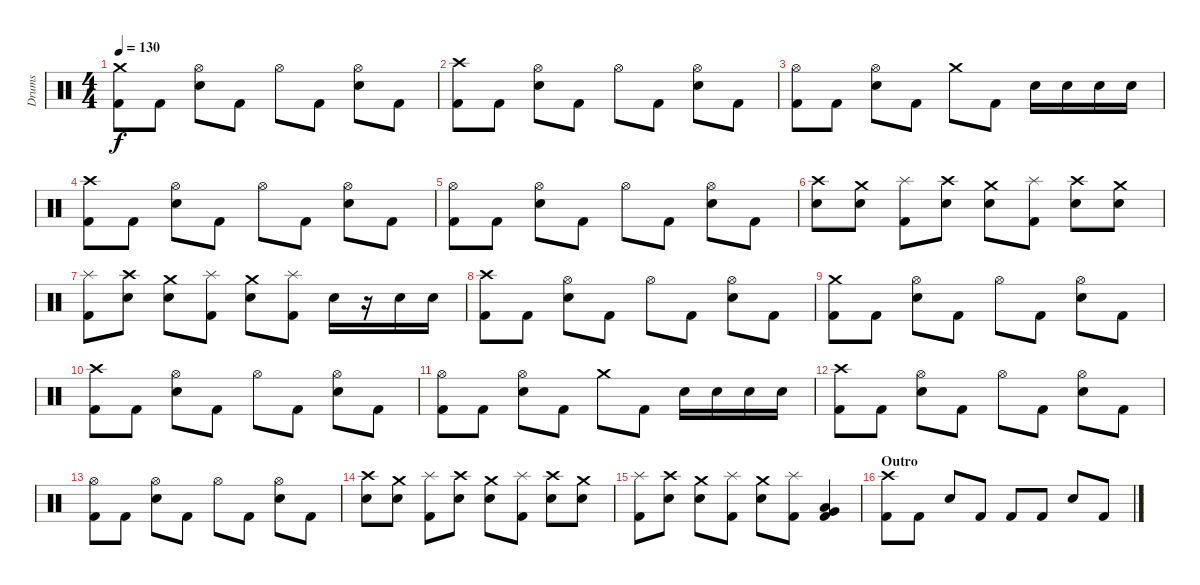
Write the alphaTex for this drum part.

\track ("Drums" "Drums") {instrument percussion}
\staff {score}
\articulation defaults
\ts (4 4)
\tempo 130
\clef neutral
\ks c
("Crash medium (hit)" "Kick (hit) 2").8{dy f} "Kick (hit) 2".8 ("Hi-Hat (open)" "Electric Snare (hit)").8 "Kick (hit) 2".8 "Hi-Hat (open)".8 "Kick (hit) 2".8 ("Hi-Hat (open)" "Electric Snare (hit)").8 "Kick (hit) 2".8 |
("Crash high (hit)" "Kick (hit) 2").8 "Kick (hit) 2".8 ("Hi-Hat (open)" "Electric Snare (hit)").8 "Kick (hit) 2".8 "Hi-Hat (open)".8 "Kick (hit) 2".8 ("Hi-Hat (open)" "Electric Snare (hit)").8 "Kick (hit) 2".8 |
("Hi-Hat (open)" "Kick (hit) 2").8 "Kick (hit) 2".8 ("Hi-Hat (open)" "Electric Snare (hit)").8 "Kick (hit) 2".8 "Crash medium (hit)".8 "Kick (hit) 2".8 "Electric Snare (hit)".16 "Electric Snare (hit)".16 "Electric Snare (hit)".16 "Electric Snare (hit)".16 |
("Crash high (hit)" "Kick (hit) 2").8 "Kick (hit) 2".8 ("Hi-Hat (open)" "Electric Snare (hit)").8 "Kick (hit) 2".8 "Hi-Hat (open)".8 "Kick (hit) 2".8 ("Hi-Hat (open)" "Electric Snare (hit)").8 "Kick (hit) 2".8 |
("Hi-Hat (open)" "Kick (hit) 2").8 "Kick (hit) 2".8 ("Hi-Hat (open)" "Electric Snare (hit)").8 "Kick (hit) 2".8 "Hi-Hat (open)".8 "Kick (hit) 2".8 ("Hi-Hat (open)" "Electric Snare (hit)").8 "Kick (hit) 2".8 |
("Crash high (hit)" "Electric Snare (hit)").8 ("Crash medium (hit)" "Electric Snare (hit)").8 ("Splash (hit)" "Kick (hit) 2").8 ("Crash high (hit)" "Electric Snare (hit)").8 ("Crash medium (hit)" "Electric Snare (hit)").8 ("Splash (hit)" "Kick (hit) 2").8 ("Crash high (hit)" "Electric Snare (hit)").8 ("Crash medium (hit)" "Electric Snare (hit)").8 |
("Splash (hit)" "Kick (hit) 2").8 ("Crash high (hit)" "Electric Snare (hit)").8 ("Crash medium (hit)" "Electric Snare (hit)").8 ("Splash (hit)" "Kick (hit) 2").8 ("Crash medium (hit)" "Electric Snare (hit)").8 ("Splash (hit)" "Kick (hit) 2").8 "Electric Snare (hit)".16 r.16 "Electric Snare (hit)".16 "Electric Snare (hit)".16 |
("Crash high (hit)" "Kick (hit) 2").8 "Kick (hit) 2".8 ("Hi-Hat (open)" "Electric Snare (hit)").8 "Kick (hit) 2".8 "Hi-Hat (open)".8 "Kick (hit) 2".8 ("Hi-Hat (open)" "Electric Snare (hit)").8 "Kick (hit) 2".8 |
("Crash medium (hit)" "Kick (hit) 2").8 "Kick (hit) 2".8 ("Hi-Hat (open)" "Electric Snare (hit)").8 "Kick (hit) 2".8 "Hi-Hat (open)".8 "Kick (hit) 2".8 ("Hi-Hat (open)" "Electric Snare (hit)").8 "Kick (hit) 2".8 |
("Crash high (hit)" "Kick (hit) 2").8 "Kick (hit) 2".8 ("Hi-Hat (open)" "Electric Snare (hit)").8 "Kick (hit) 2".8 "Hi-Hat (open)".8 "Kick (hit) 2".8 ("Hi-Hat (open)" "Electric Snare (hit)").8 "Kick (hit) 2".8 |
("Hi-Hat (open)" "Kick (hit) 2").8 "Kick (hit) 2".8 ("Hi-Hat (open)" "Electric Snare (hit)").8 "Kick (hit) 2".8 "Crash medium (hit)".8 "Kick (hit) 2".8 "Electric Snare (hit)".16 "Electric Snare (hit)".16 "Electric Snare (hit)".16 "Electric Snare (hit)".16 |
("Crash high (hit)" "Kick (hit) 2").8 "Kick (hit) 2".8 ("Hi-Hat (open)" "Electric Snare (hit)").8 "Kick (hit) 2".8 "Hi-Hat (open)".8 "Kick (hit) 2".8 ("Hi-Hat (open)" "Electric Snare (hit)").8 "Kick (hit) 2".8 |
("Hi-Hat (open)" "Kick (hit) 2").8 "Kick (hit) 2".8 ("Hi-Hat (open)" "Electric Snare (hit)").8 "Kick (hit) 2".8 "Hi-Hat (open)".8 "Kick (hit) 2".8 ("Hi-Hat (open)" "Electric Snare (hit)").8 "Kick (hit) 2".8 |
("Crash high (hit)" "Electric Snare (hit)").8 ("Crash medium (hit)" "Electric Snare (hit)").8 ("Splash (hit)" "Kick (hit) 2").8 ("Crash high (hit)" "Electric Snare (hit)").8 ("Crash medium (hit)" "Electric Snare (hit)").8 ("Splash (hit)" "Kick (hit) 2").8 ("Crash high (hit)" "Electric Snare (hit)").8 ("Crash medium (hit)" "Electric Snare (hit)").8 |
("Splash (hit)" "Kick (hit) 2").8 ("Crash high (hit)" "Electric Snare (hit)").8 ("Crash medium (hit)" "Electric Snare (hit)").8 ("Splash (hit)" "Kick (hit) 2").8 ("Crash medium (hit)" "Electric Snare (hit)").8 ("Splash (hit)" "Kick (hit) 2").8 ("Very Low Tom (hit)" "Low Floor Tom (hit)" "Kick (hit) 2").4 |
\section ("" "Outro")
("Crash high (hit)" "Kick (hit) 2").8 "Kick (hit) 2".8 "Electric Snare (hit)".8 "Kick (hit) 2".8 "Kick (hit) 2".8 "Kick (hit) 2".8 "Electric Snare (hit)".8 "Kick (hit) 2".8
